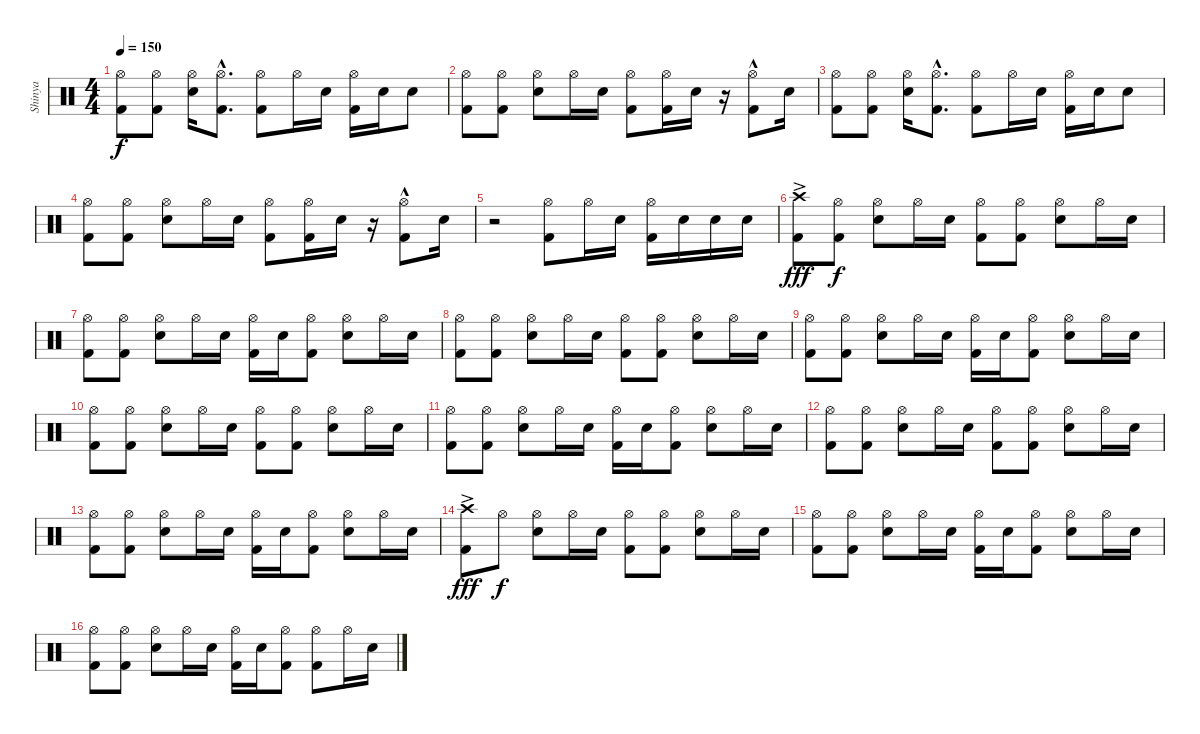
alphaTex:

\track ("Shinya" "Shinya") {instrument percussion}
\staff {score}
\articulation defaults
\ts (4 4)
\tempo 150
\clef neutral
\ks c
("Hi-Hat (open)" "Kick (hit) 2").8{dy f} ("Hi-Hat (open)" "Kick (hit) 2").8 ("Hi-Hat (open)" "Snare (hit) 2").16 ("Hi-Hat (open)"{hac} "Kick (hit) 2"{hac}).8{d} ("Hi-Hat (open)" "Kick (hit) 2").8 "Hi-Hat (open)".16 "Snare (hit) 2".16 ("Hi-Hat (open)" "Kick (hit) 2").16 "Snare (hit) 2".16 "Snare (hit) 2".8 |
("Hi-Hat (open)" "Kick (hit) 2").8 ("Hi-Hat (open)" "Kick (hit) 2").8 ("Hi-Hat (open)" "Snare (hit) 2").8 "Hi-Hat (open)".16 "Snare (hit) 2".16 ("Hi-Hat (open)" "Kick (hit) 2").8 ("Hi-Hat (open)" "Kick (hit) 2").16 "Snare (hit) 2".16 r.16 ("Hi-Hat (open)" "Kick (hit) 2"{hac}).8 "Snare (hit) 2".16 |
("Hi-Hat (open)" "Kick (hit) 2").8 ("Hi-Hat (open)" "Kick (hit) 2").8 ("Hi-Hat (open)" "Snare (hit) 2").16 ("Hi-Hat (open)"{hac} "Kick (hit) 2"{hac}).8{d} ("Hi-Hat (open)" "Kick (hit) 2").8 "Hi-Hat (open)".16 "Snare (hit) 2".16 ("Hi-Hat (open)" "Kick (hit) 2").16 "Snare (hit) 2".16 "Snare (hit) 2".8 |
("Hi-Hat (open)" "Kick (hit) 2").8 ("Hi-Hat (open)" "Kick (hit) 2").8 ("Hi-Hat (open)" "Snare (hit) 2").8 "Hi-Hat (open)".16 "Snare (hit) 2".16 ("Hi-Hat (open)" "Kick (hit) 2").8 ("Hi-Hat (open)" "Kick (hit) 2").16 "Snare (hit) 2".16 r.16 ("Hi-Hat (open)"{hac} "Kick (hit) 2").8 "Snare (hit) 2".16 |
r.2 ("Hi-Hat (open)" "Kick (hit) 2").8 "Hi-Hat (open)".16 "Snare (hit) 2".16 ("Hi-Hat (open)" "Kick (hit) 2").16 "Snare (hit) 2".16 "Snare (hit) 2".16 "Snare (hit) 2".16 |
("Crash high (hit)"{ac} "Kick (hit) 2").8{dy fff} ("Hi-Hat (open)" "Kick (hit) 2").8{dy f} ("Hi-Hat (open)" "Snare (hit) 2").8 "Hi-Hat (open)".16 "Snare (hit) 2".16 ("Hi-Hat (open)" "Kick (hit) 2").8 ("Hi-Hat (open)" "Kick (hit) 2").8 ("Hi-Hat (open)" "Snare (hit) 2").8 "Hi-Hat (open)".16 "Snare (hit) 2".16 |
("Hi-Hat (open)" "Kick (hit) 2").8 ("Hi-Hat (open)" "Kick (hit) 2").8 ("Hi-Hat (open)" "Snare (hit) 2").8 "Hi-Hat (open)".16 "Snare (hit) 2".16 ("Hi-Hat (open)" "Kick (hit) 2").16 "Snare (hit) 2".16 ("Hi-Hat (open)" "Kick (hit) 2").8 ("Hi-Hat (open)" "Snare (hit) 2").8 "Hi-Hat (open)".16 "Snare (hit) 2".16 |
("Hi-Hat (open)" "Kick (hit) 2").8 ("Hi-Hat (open)" "Kick (hit) 2").8 ("Hi-Hat (open)" "Snare (hit) 2").8 "Hi-Hat (open)".16 "Snare (hit) 2".16 ("Hi-Hat (open)" "Kick (hit) 2").8 ("Hi-Hat (open)" "Kick (hit) 2").8 ("Hi-Hat (open)" "Snare (hit) 2").8 "Hi-Hat (open)".16 "Snare (hit) 2".16 |
("Hi-Hat (open)" "Kick (hit) 2").8 ("Hi-Hat (open)" "Kick (hit) 2").8 ("Hi-Hat (open)" "Snare (hit) 2").8 "Hi-Hat (open)".16 "Snare (hit) 2".16 ("Hi-Hat (open)" "Kick (hit) 2").16 "Snare (hit) 2".16 ("Hi-Hat (open)" "Kick (hit) 2").8 ("Hi-Hat (open)" "Snare (hit) 2").8 "Hi-Hat (open)".16 "Snare (hit) 2".16 |
("Hi-Hat (open)" "Kick (hit) 2").8 ("Hi-Hat (open)" "Kick (hit) 2").8 ("Hi-Hat (open)" "Snare (hit) 2").8 "Hi-Hat (open)".16 "Snare (hit) 2".16 ("Hi-Hat (open)" "Kick (hit) 2").8 ("Hi-Hat (open)" "Kick (hit) 2").8 ("Hi-Hat (open)" "Snare (hit) 2").8 "Hi-Hat (open)".16 "Snare (hit) 2".16 |
("Hi-Hat (open)" "Kick (hit) 2").8 ("Hi-Hat (open)" "Kick (hit) 2").8 ("Hi-Hat (open)" "Snare (hit) 2").8 "Hi-Hat (open)".16 "Snare (hit) 2".16 ("Hi-Hat (open)" "Kick (hit) 2").16 "Snare (hit) 2".16 ("Hi-Hat (open)" "Kick (hit) 2").8 ("Hi-Hat (open)" "Snare (hit) 2").8 "Hi-Hat (open)".16 "Snare (hit) 2".16 |
("Hi-Hat (open)" "Kick (hit) 2").8 ("Hi-Hat (open)" "Kick (hit) 2").8 ("Hi-Hat (open)" "Snare (hit) 2").8 "Hi-Hat (open)".16 "Snare (hit) 2".16 ("Hi-Hat (open)" "Kick (hit) 2").8 ("Hi-Hat (open)" "Kick (hit) 2").8 ("Hi-Hat (open)" "Snare (hit) 2").8 "Hi-Hat (open)".16 "Snare (hit) 2".16 |
("Hi-Hat (open)" "Kick (hit) 2").8 ("Hi-Hat (open)" "Kick (hit) 2").8 ("Hi-Hat (open)" "Snare (hit) 2").8 "Hi-Hat (open)".16 "Snare (hit) 2".16 ("Hi-Hat (open)" "Kick (hit) 2").16 "Snare (hit) 2".16 ("Hi-Hat (open)" "Kick (hit) 2").8 ("Hi-Hat (open)" "Snare (hit) 2").8 "Hi-Hat (open)".16 "Snare (hit) 2".16 |
("Crash high (hit)"{ac} "Kick (hit) 2").8{dy fff} "Hi-Hat (open)".8{dy f} ("Hi-Hat (open)" "Snare (hit) 2").8 "Hi-Hat (open)".16 "Snare (hit) 2".16 ("Hi-Hat (open)" "Kick (hit) 2").8 ("Hi-Hat (open)" "Kick (hit) 2").8 ("Hi-Hat (open)" "Snare (hit) 2").8 "Hi-Hat (open)".16 "Snare (hit) 2".16 |
("Hi-Hat (open)" "Kick (hit) 2").8 ("Hi-Hat (open)" "Kick (hit) 2").8 ("Hi-Hat (open)" "Snare (hit) 2").8 "Hi-Hat (open)".16 "Snare (hit) 2".16 ("Hi-Hat (open)" "Kick (hit) 2").16 "Snare (hit) 2".16 ("Hi-Hat (open)" "Kick (hit) 2").8 ("Hi-Hat (open)" "Snare (hit) 2").8 "Hi-Hat (open)".16 "Snare (hit) 2".16 |
("Hi-Hat (open)" "Kick (hit) 2").8 ("Hi-Hat (open)" "Kick (hit) 2").8 ("Hi-Hat (open)" "Snare (hit) 2").8 "Hi-Hat (open)".16 "Snare (hit) 2".16 ("Hi-Hat (open)" "Kick (hit) 2").16 "Snare (hit) 2".16 ("Hi-Hat (open)" "Kick (hit) 2").8 ("Hi-Hat (open)" "Kick (hit) 2").8 "Hi-Hat (open)".16 "Snare (hit) 2".16
